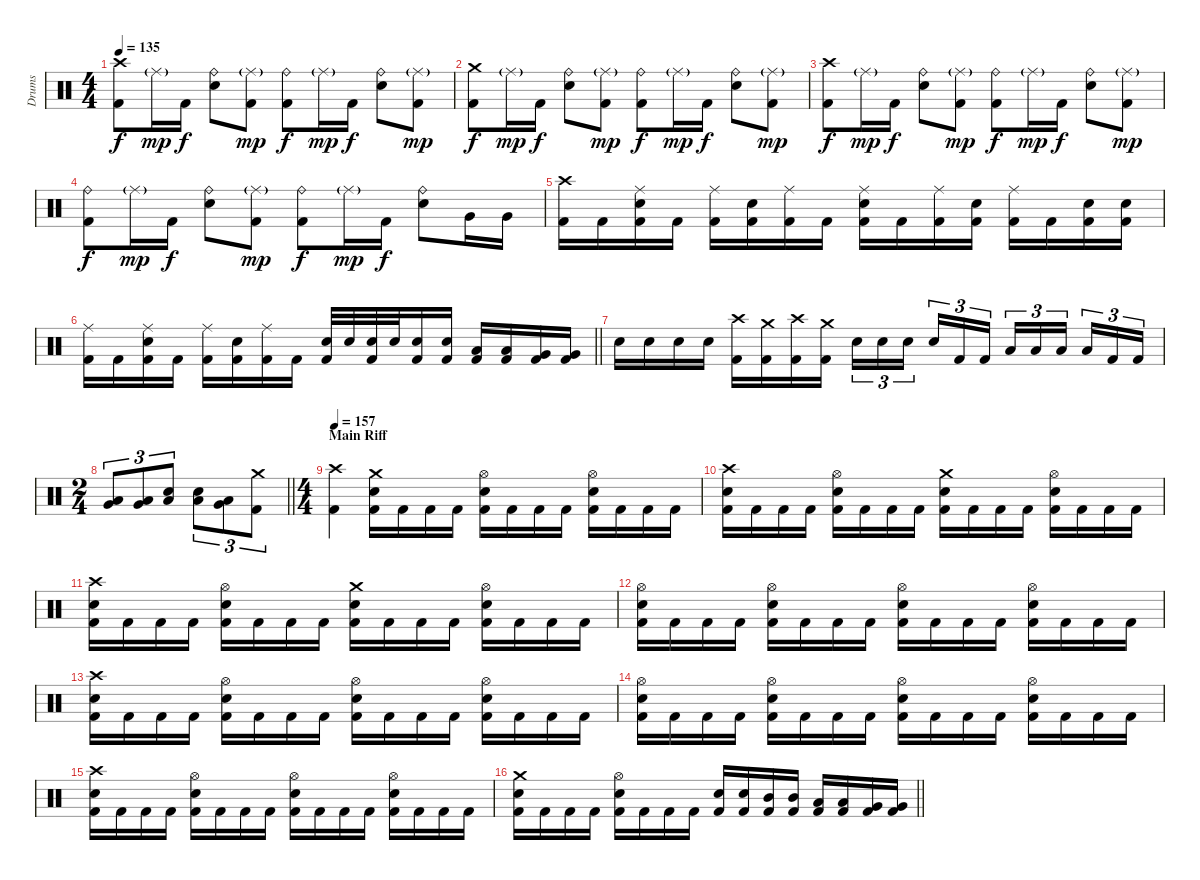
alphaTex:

\track ("Drums" "Drums") {instrument percussion}
\staff {score}
\articulation defaults
\ts (4 4)
\tempo 135
\clef neutral
\ks c
("Crash high (hit)" "Kick (hit) 2").8{dy f} "Ride (middle)"{g}.16{dy mp} "Kick (hit) 2".16{dy f} ("Ride (bell)" "Electric Snare (hit)").8 ("Ride (middle)"{g} "Kick (hit) 2").8{dy mp} ("Ride (bell)" "Kick (hit) 2").8{dy f} "Ride (middle)"{g}.16{dy mp} "Kick (hit) 2".16{dy f} ("Ride (bell)" "Electric Snare (hit)").8 ("Ride (middle)"{g} "Kick (hit) 2").8{dy mp} |
("Crash medium (hit)" "Kick (hit) 2").8{dy f} "Ride (middle)"{g}.16{dy mp} "Kick (hit) 2".16{dy f} ("Ride (bell)" "Electric Snare (hit)").8 ("Ride (middle)"{g} "Kick (hit) 2").8{dy mp} ("Ride (bell)" "Kick (hit) 2").8{dy f} "Ride (middle)"{g}.16{dy mp} "Kick (hit) 2".16{dy f} ("Ride (bell)" "Electric Snare (hit)").8 ("Ride (middle)"{g} "Kick (hit) 2").8{dy mp} |
("Crash high (hit)" "Kick (hit) 2").8{dy f} "Ride (middle)"{g}.16{dy mp} "Kick (hit) 2".16{dy f} ("Ride (bell)" "Electric Snare (hit)").8 ("Ride (middle)"{g} "Kick (hit) 2").8{dy mp} ("Ride (bell)" "Kick (hit) 2").8{dy f} "Ride (middle)"{g}.16{dy mp} "Kick (hit) 2".16{dy f} ("Ride (bell)" "Electric Snare (hit)").8 ("Ride (middle)"{g} "Kick (hit) 2").8{dy mp} |
("Ride (bell)" "Kick (hit) 2").8{dy f} "Ride (middle)"{g}.16{dy mp} "Kick (hit) 2".16{dy f} ("Ride (bell)" "Electric Snare (hit)").8 ("Ride (middle)"{g} "Kick (hit) 2").8{dy mp} ("Ride (bell)" "Kick (hit) 2").8{dy f} "Ride (middle)"{g}.16{dy mp} "Kick (hit) 2".16{dy f} ("Ride (bell)" "Electric Snare (hit)").8 "Very Low Tom (hit)".16 "Very Low Tom (hit)".16 |
("Crash high (hit)" "Kick (hit) 2").16 "Kick (hit) 2".16 ("Ride (middle)" "Electric Snare (hit)" "Kick (hit) 2").16 "Kick (hit) 2".16 ("Ride (middle)" "Kick (hit) 2").16 ("Electric Snare (hit)" "Kick (hit) 2").16 ("Ride (middle)" "Kick (hit) 2").16 "Kick (hit) 2".16 ("Ride (middle)" "Electric Snare (hit)" "Kick (hit) 2").16 "Kick (hit) 2".16 ("Ride (middle)" "Kick (hit) 2").16 ("Electric Snare (hit)" "Kick (hit) 2").16 ("Ride (middle)" "Kick (hit) 2").16 "Kick (hit) 2".16 ("Electric Snare (hit)" "Kick (hit) 2").16 ("Electric Snare (hit)" "Kick (hit) 2").16 |
\barLineRight lightlight
("Ride (middle)" "Kick (hit) 2").16 "Kick (hit) 2".16 ("Ride (middle)" "Electric Snare (hit)" "Kick (hit) 2").16 "Kick (hit) 2".16 ("Ride (middle)" "Kick (hit) 2").16 ("Electric Snare (hit)" "Kick (hit) 2").16 ("Ride (middle)" "Kick (hit) 2").16 "Kick (hit) 2".16 ("Electric Snare (hit)" "Kick (hit) 2").32 "Electric Snare (hit)".32 ("Electric Snare (hit)" "Kick (hit) 2").32 "Electric Snare (hit)".32 ("Electric Snare (hit)" "Kick (hit) 2").16 ("Electric Snare (hit)" "Kick (hit) 2").16 ("Low Tom (hit)" "Kick (hit) 2").16 ("Low Tom (hit)" "Kick (hit) 2").16 ("Very Low Tom (hit)" "Kick (hit) 2").16 ("Very Low Tom (hit)" "Kick (hit) 2").16 |
"Electric Snare (hit)".16 "Electric Snare (hit)".16 "Electric Snare (hit)".16 "Electric Snare (hit)".16 ("Crash high (hit)" "Kick (hit) 2").16 ("Crash medium (hit)" "Kick (hit) 2").16 ("Crash high (hit)" "Kick (hit) 2").16 ("Crash medium (hit)" "Kick (hit) 2").16 "Electric Snare (hit)".16{tu (3 2)} "Electric Snare (hit)".16{tu (3 2)} "Electric Snare (hit)".16{tu (3 2) beam splitsecondary} "Electric Snare (hit)".16{tu (3 2)} "Kick (hit) 2".16{tu (3 2)} "Kick (hit) 2".16{tu (3 2)} "Low Tom (hit)".16{tu (3 2)} "Low Tom (hit)".16{tu (3 2)} "Low Tom (hit)".16{tu (3 2) beam splitsecondary} "Low Tom (hit)".16{tu (3 2)} "Kick (hit) 2".16{tu (3 2)} "Kick (hit) 2".16{tu (3 2)} |
\ts (2 4)
\barLineRight lightlight
("Low Tom (hit)" "Very Low Tom (hit)").8{tu (3 2)} ("Very Low Tom (hit)" "Low Floor Tom (hit)").8{tu (3 2)} ("Low Floor Tom (hit)" "Electric Snare (hit)").8{tu (3 2)} ("Low Floor Tom (hit)" "Electric Snare (hit)").8{tu (3 2)} ("Very Low Tom (hit)" "Low Floor Tom (hit)").8{tu (3 2)} ("Crash medium (hit)" "Kick (hit) 2").8{tu (3 2)} |
\ts (4 4)
\section ("" "Main Riff")
\tempo 157
("Crash high (hit)" "Kick (hit) 2").4 ("Crash medium (hit)" "Electric Snare (hit)" "Kick (hit) 2").16 "Kick (hit) 2".16 "Kick (hit) 2".16 "Kick (hit) 2".16 ("Hi-Hat (open)" "Electric Snare (hit)" "Kick (hit) 2").16 "Kick (hit) 2".16 "Kick (hit) 2".16 "Kick (hit) 2".16 ("Hi-Hat (open)" "Electric Snare (hit)" "Kick (hit) 2").16 "Kick (hit) 2".16 "Kick (hit) 2".16 "Kick (hit) 2".16 |
("Crash high (hit)" "Electric Snare (hit)" "Kick (hit) 2").16 "Kick (hit) 2".16 "Kick (hit) 2".16 "Kick (hit) 2".16 ("Hi-Hat (open)" "Electric Snare (hit)" "Kick (hit) 2").16 "Kick (hit) 2".16 "Kick (hit) 2".16 "Kick (hit) 2".16 ("Crash medium (hit)" "Electric Snare (hit)" "Kick (hit) 2").16 "Kick (hit) 2".16 "Kick (hit) 2".16 "Kick (hit) 2".16 ("Hi-Hat (open)" "Electric Snare (hit)" "Kick (hit) 2").16 "Kick (hit) 2".16 "Kick (hit) 2".16 "Kick (hit) 2".16 |
("Crash high (hit)" "Electric Snare (hit)" "Kick (hit) 2").16 "Kick (hit) 2".16 "Kick (hit) 2".16 "Kick (hit) 2".16 ("Hi-Hat (open)" "Electric Snare (hit)" "Kick (hit) 2").16 "Kick (hit) 2".16 "Kick (hit) 2".16 "Kick (hit) 2".16 ("Crash medium (hit)" "Electric Snare (hit)" "Kick (hit) 2").16 "Kick (hit) 2".16 "Kick (hit) 2".16 "Kick (hit) 2".16 ("Hi-Hat (open)" "Electric Snare (hit)" "Kick (hit) 2").16 "Kick (hit) 2".16 "Kick (hit) 2".16 "Kick (hit) 2".16 |
("Hi-Hat (open)" "Electric Snare (hit)" "Kick (hit) 2").16 "Kick (hit) 2".16 "Kick (hit) 2".16 "Kick (hit) 2".16 ("Hi-Hat (open)" "Electric Snare (hit)" "Kick (hit) 2").16 "Kick (hit) 2".16 "Kick (hit) 2".16 "Kick (hit) 2".16 ("Hi-Hat (open)" "Electric Snare (hit)" "Kick (hit) 2").16 "Kick (hit) 2".16 "Kick (hit) 2".16 "Kick (hit) 2".16 ("Hi-Hat (open)" "Electric Snare (hit)" "Kick (hit) 2").16 "Kick (hit) 2".16 "Kick (hit) 2".16 "Kick (hit) 2".16 |
("Crash high (hit)" "Electric Snare (hit)" "Kick (hit) 2").16 "Kick (hit) 2".16 "Kick (hit) 2".16 "Kick (hit) 2".16 ("Hi-Hat (open)" "Electric Snare (hit)" "Kick (hit) 2").16 "Kick (hit) 2".16 "Kick (hit) 2".16 "Kick (hit) 2".16 ("Hi-Hat (open)" "Electric Snare (hit)" "Kick (hit) 2").16 "Kick (hit) 2".16 "Kick (hit) 2".16 "Kick (hit) 2".16 ("Hi-Hat (open)" "Electric Snare (hit)" "Kick (hit) 2").16 "Kick (hit) 2".16 "Kick (hit) 2".16 "Kick (hit) 2".16 |
("Hi-Hat (open)" "Electric Snare (hit)" "Kick (hit) 2").16 "Kick (hit) 2".16 "Kick (hit) 2".16 "Kick (hit) 2".16 ("Hi-Hat (open)" "Electric Snare (hit)" "Kick (hit) 2").16 "Kick (hit) 2".16 "Kick (hit) 2".16 "Kick (hit) 2".16 ("Hi-Hat (open)" "Electric Snare (hit)" "Kick (hit) 2").16 "Kick (hit) 2".16 "Kick (hit) 2".16 "Kick (hit) 2".16 ("Hi-Hat (open)" "Electric Snare (hit)" "Kick (hit) 2").16 "Kick (hit) 2".16 "Kick (hit) 2".16 "Kick (hit) 2".16 |
("Crash high (hit)" "Electric Snare (hit)" "Kick (hit) 2").16 "Kick (hit) 2".16 "Kick (hit) 2".16 "Kick (hit) 2".16 ("Hi-Hat (open)" "Electric Snare (hit)" "Kick (hit) 2").16 "Kick (hit) 2".16 "Kick (hit) 2".16 "Kick (hit) 2".16 ("Hi-Hat (open)" "Electric Snare (hit)" "Kick (hit) 2").16 "Kick (hit) 2".16 "Kick (hit) 2".16 "Kick (hit) 2".16 ("Hi-Hat (open)" "Electric Snare (hit)" "Kick (hit) 2").16 "Kick (hit) 2".16 "Kick (hit) 2".16 "Kick (hit) 2".16 |
\barLineRight lightlight
("Crash medium (hit)" "Electric Snare (hit)" "Kick (hit) 2").16 "Kick (hit) 2".16 "Kick (hit) 2".16 "Kick (hit) 2".16 ("Hi-Hat (open)" "Electric Snare (hit)" "Kick (hit) 2").16 "Kick (hit) 2".16 "Kick (hit) 2".16 "Kick (hit) 2".16 ("Electric Snare (hit)" "Kick (hit) 2").16 ("Electric Snare (hit)" "Kick (hit) 2").16 ("Mid Tom (hit)" "Kick (hit) 2").16 ("Mid Tom (hit)" "Kick (hit) 2").16 ("Low Tom (hit)" "Kick (hit) 2").16 ("Low Tom (hit)" "Kick (hit) 2").16 ("Very Low Tom (hit)" "Kick (hit) 2").16 ("Very Low Tom (hit)" "Kick (hit) 2").16
